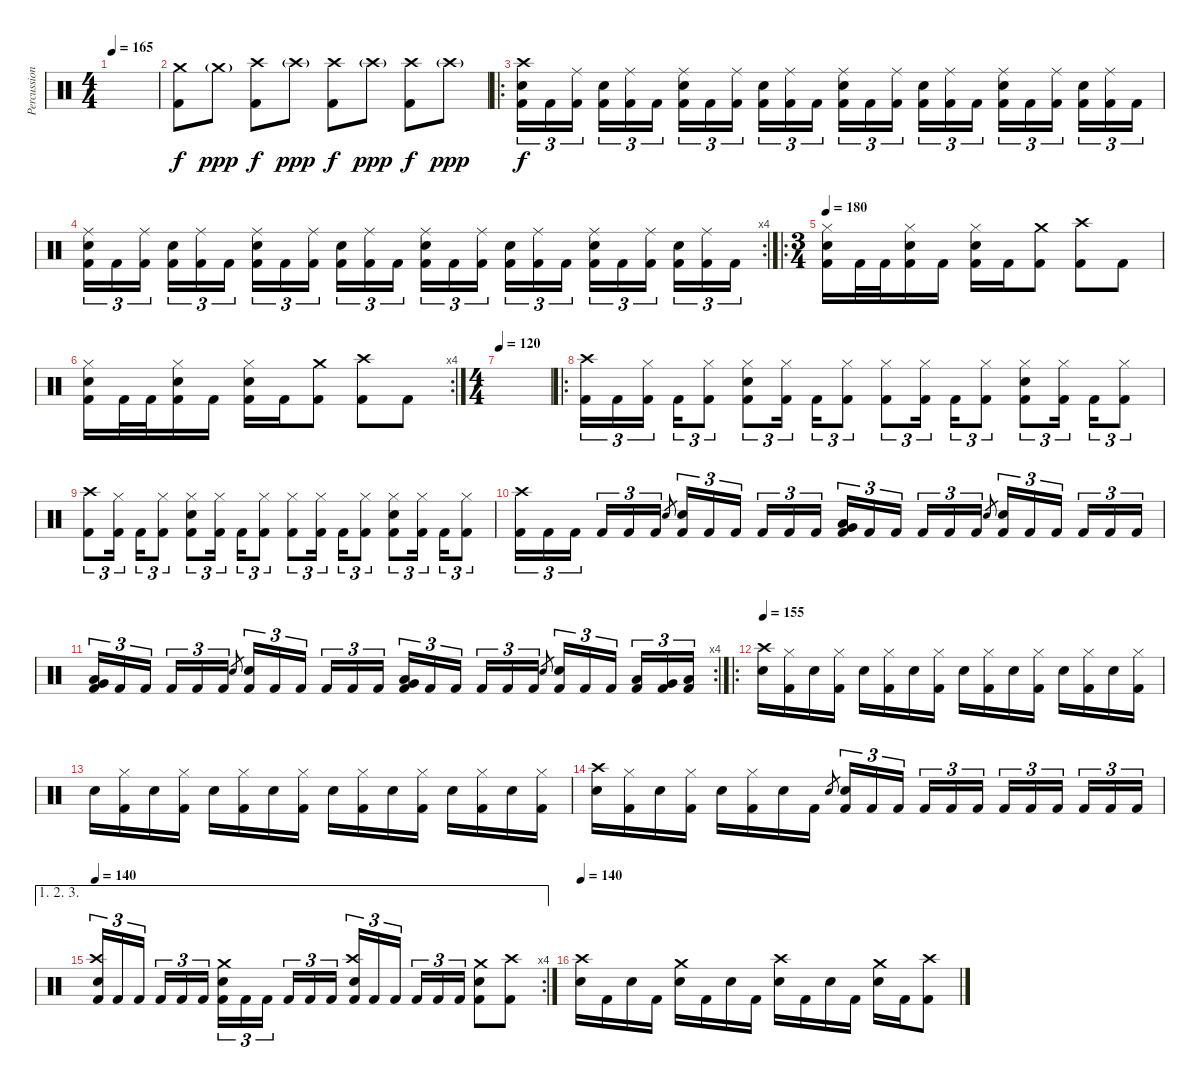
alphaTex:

\track ("Percussion" "Percussion") {instrument percussion}
\staff {score}
\articulation defaults
\ts (4 4)
\tempo 165
\clef neutral
\ks c
|
("Crash medium (hit)" "Kick (hit) 2").8 "Crash medium (hit)"{g}.8{dy ppp} ("Crash high (hit)" "Kick (hit) 2").8{dy f} "Crash high (hit)"{g}.8{dy ppp} ("Crash high (hit)" "Kick (hit) 2").8{dy f} "Crash high (hit)"{g}.8{dy ppp} ("Crash high (hit)" "Kick (hit) 2").8{dy f} "Crash high (hit)"{g}.8{dy ppp} |
\ro
("Crash high (hit)" "Snare (hit) 2" "Kick (hit) 2").16{tu (3 2) dy f} "Kick (hit) 2".16{tu (3 2)} ("Ride (middle)" "Kick (hit) 2").16{tu (3 2)} ("Snare (hit) 2" "Kick (hit) 2").16{tu (3 2)} ("Ride (middle)" "Kick (hit) 2").16{tu (3 2)} "Kick (hit) 2".16{tu (3 2)} ("Ride (middle)" "Snare (hit) 2" "Kick (hit) 2").16{tu (3 2)} "Kick (hit) 2".16{tu (3 2)} ("Ride (middle)" "Kick (hit) 2").16{tu (3 2)} ("Snare (hit) 2" "Kick (hit) 2").16{tu (3 2)} ("Ride (middle)" "Kick (hit) 2").16{tu (3 2)} "Kick (hit) 2".16{tu (3 2)} ("Ride (middle)" "Snare (hit) 2" "Kick (hit) 2").16{tu (3 2)} "Kick (hit) 2".16{tu (3 2)} ("Ride (middle)" "Kick (hit) 2").16{tu (3 2)} ("Snare (hit) 2" "Kick (hit) 2").16{tu (3 2)} ("Ride (middle)" "Kick (hit) 2").16{tu (3 2)} "Kick (hit) 2".16{tu (3 2)} ("Ride (middle)" "Snare (hit) 2" "Kick (hit) 2").16{tu (3 2)} "Kick (hit) 2".16{tu (3 2)} ("Ride (middle)" "Kick (hit) 2").16{tu (3 2)} ("Snare (hit) 2" "Kick (hit) 2").16{tu (3 2)} ("Ride (middle)" "Kick (hit) 2").16{tu (3 2)} "Kick (hit) 2".16{tu (3 2)} |
\rc 4
("Ride (middle)" "Snare (hit) 2" "Kick (hit) 2").16{tu (3 2)} "Kick (hit) 2".16{tu (3 2)} ("Ride (middle)" "Kick (hit) 2").16{tu (3 2)} ("Snare (hit) 2" "Kick (hit) 2").16{tu (3 2)} ("Ride (middle)" "Kick (hit) 2").16{tu (3 2)} "Kick (hit) 2".16{tu (3 2)} ("Ride (middle)" "Snare (hit) 2" "Kick (hit) 2").16{tu (3 2)} "Kick (hit) 2".16{tu (3 2)} ("Ride (middle)" "Kick (hit) 2").16{tu (3 2)} ("Snare (hit) 2" "Kick (hit) 2").16{tu (3 2)} ("Ride (middle)" "Kick (hit) 2").16{tu (3 2)} "Kick (hit) 2".16{tu (3 2)} ("Ride (middle)" "Snare (hit) 2" "Kick (hit) 2").16{tu (3 2)} "Kick (hit) 2".16{tu (3 2)} ("Ride (middle)" "Kick (hit) 2").16{tu (3 2)} ("Snare (hit) 2" "Kick (hit) 2").16{tu (3 2)} ("Ride (middle)" "Kick (hit) 2").16{tu (3 2)} "Kick (hit) 2".16{tu (3 2)} ("Ride (middle)" "Snare (hit) 2" "Kick (hit) 2").16{tu (3 2)} "Kick (hit) 2".16{tu (3 2)} ("Ride (middle)" "Kick (hit) 2").16{tu (3 2)} ("Snare (hit) 2" "Kick (hit) 2").16{tu (3 2)} ("Ride (middle)" "Kick (hit) 2").16{tu (3 2)} "Kick (hit) 2".16{tu (3 2)} |
\ro
\ts (3 4)
\tempo 180
("Hi-Hat (closed)" "Snare (hit) 2" "Kick (hit) 2").16 "Kick (hit) 2".32 "Kick (hit) 2".32 ("Hi-Hat (closed)" "Snare (hit) 2" "Kick (hit) 2").16 "Kick (hit) 2".16 ("Hi-Hat (closed)" "Snare (hit) 2" "Kick (hit) 2").16 "Kick (hit) 2".16 ("Crash medium (hit)" "Kick (hit) 2").8 ("Crash high (hit)" "Kick (hit) 2").8 "Kick (hit) 2".8 |
\rc 4
("Hi-Hat (closed)" "Snare (hit) 2" "Kick (hit) 2").16 "Kick (hit) 2".32 "Kick (hit) 2".32 ("Hi-Hat (closed)" "Snare (hit) 2" "Kick (hit) 2").16 "Kick (hit) 2".16 ("Hi-Hat (closed)" "Snare (hit) 2" "Kick (hit) 2").16 "Kick (hit) 2".16 ("Crash medium (hit)" "Kick (hit) 2").8 ("Crash high (hit)" "Kick (hit) 2").8 "Kick (hit) 2".8 |
\ts (4 4)
\tempo 120
|
\ro
("Crash high (hit)" "Kick (hit) 2").16{tu (3 2)} "Kick (hit) 2".16{tu (3 2)} ("Hi-Hat (closed)" "Kick (hit) 2").16{tu (3 2)} "Kick (hit) 2".16{tu (3 2)} ("Hi-Hat (closed)" "Kick (hit) 2").8{tu (3 2)} ("Hi-Hat (closed)" "Snare (hit) 2" "Kick (hit) 2").8{tu (3 2)} ("Hi-Hat (closed)" "Kick (hit) 2").16{tu (3 2)} "Kick (hit) 2".16{tu (3 2)} ("Hi-Hat (closed)" "Kick (hit) 2").8{tu (3 2)} ("Hi-Hat (closed)" "Kick (hit) 2").8{tu (3 2)} ("Hi-Hat (closed)" "Kick (hit) 2").16{tu (3 2)} "Kick (hit) 2".16{tu (3 2)} ("Hi-Hat (closed)" "Kick (hit) 2").8{tu (3 2)} ("Hi-Hat (closed)" "Snare (hit) 2" "Kick (hit) 2").8{tu (3 2)} ("Hi-Hat (closed)" "Kick (hit) 2").16{tu (3 2)} "Kick (hit) 2".16{tu (3 2)} ("Hi-Hat (closed)" "Kick (hit) 2").8{tu (3 2)} |
("Crash high (hit)" "Kick (hit) 2").8{tu (3 2)} ("Hi-Hat (closed)" "Kick (hit) 2").16{tu (3 2)} "Kick (hit) 2".16{tu (3 2)} ("Hi-Hat (closed)" "Kick (hit) 2").8{tu (3 2)} ("Hi-Hat (closed)" "Snare (hit) 2" "Kick (hit) 2").8{tu (3 2)} ("Hi-Hat (closed)" "Kick (hit) 2").16{tu (3 2)} "Kick (hit) 2".16{tu (3 2)} ("Hi-Hat (closed)" "Kick (hit) 2").8{tu (3 2)} ("Hi-Hat (closed)" "Kick (hit) 2").8{tu (3 2)} ("Hi-Hat (closed)" "Kick (hit) 2").16{tu (3 2)} "Kick (hit) 2".16{tu (3 2)} ("Hi-Hat (closed)" "Kick (hit) 2").8{tu (3 2)} ("Hi-Hat (closed)" "Snare (hit) 2" "Kick (hit) 2").8{tu (3 2)} ("Hi-Hat (closed)" "Kick (hit) 2").16{tu (3 2)} "Kick (hit) 2".16{tu (3 2)} ("Hi-Hat (closed)" "Kick (hit) 2").8{tu (3 2)} |
("Crash high (hit)" "Kick (hit) 2").16{tu (3 2)} "Kick (hit) 2".16{tu (3 2)} "Kick (hit) 2".16{tu (3 2)} "Kick (hit) 2".16{tu (3 2)} "Kick (hit) 2".16{tu (3 2)} "Kick (hit) 2".16{tu (3 2)} "Snare (hit) 2".8{gr} ("Snare (hit) 2" "Kick (hit) 2").16{tu (3 2)} "Kick (hit) 2".16{tu (3 2)} "Kick (hit) 2".16{tu (3 2)} "Kick (hit) 2".16{tu (3 2)} "Kick (hit) 2".16{tu (3 2)} "Kick (hit) 2".16{tu (3 2)} ("Low Floor Tom (hit)" "Very Low Tom (hit)" "Kick (hit) 2").16{tu (3 2)} "Kick (hit) 2".16{tu (3 2)} "Kick (hit) 2".16{tu (3 2)} "Kick (hit) 2".16{tu (3 2)} "Kick (hit) 2".16{tu (3 2)} "Kick (hit) 2".16{tu (3 2)} "Snare (hit) 2".8{gr} ("Snare (hit) 2" "Kick (hit) 2").16{tu (3 2)} "Kick (hit) 2".16{tu (3 2)} "Kick (hit) 2".16{tu (3 2)} "Kick (hit) 2".16{tu (3 2)} "Kick (hit) 2".16{tu (3 2)} "Kick (hit) 2".16{tu (3 2)} |
\rc 4
("Low Floor Tom (hit)" "Very Low Tom (hit)" "Kick (hit) 2").16{tu (3 2)} "Kick (hit) 2".16{tu (3 2)} "Kick (hit) 2".16{tu (3 2)} "Kick (hit) 2".16{tu (3 2)} "Kick (hit) 2".16{tu (3 2)} "Kick (hit) 2".16{tu (3 2)} "Snare (hit) 2".8{gr} ("Snare (hit) 2" "Kick (hit) 2").16{tu (3 2)} "Kick (hit) 2".16{tu (3 2)} "Kick (hit) 2".16{tu (3 2)} "Kick (hit) 2".16{tu (3 2)} "Kick (hit) 2".16{tu (3 2)} "Kick (hit) 2".16{tu (3 2)} ("Low Floor Tom (hit)" "Very Low Tom (hit)" "Kick (hit) 2").16{tu (3 2)} "Kick (hit) 2".16{tu (3 2)} "Kick (hit) 2".16{tu (3 2)} "Kick (hit) 2".16{tu (3 2)} "Kick (hit) 2".16{tu (3 2)} "Kick (hit) 2".16{tu (3 2)} "Snare (hit) 2".8{gr} ("Snare (hit) 2" "Kick (hit) 2").16{tu (3 2)} "Kick (hit) 2".16{tu (3 2)} "Kick (hit) 2".16{tu (3 2)} ("Low Tom (hit)" "Kick (hit) 2").16{tu (3 2)} ("Very Low Tom (hit)" "Kick (hit) 2").16{tu (3 2)} ("Low Floor Tom (hit)" "Kick (hit) 2").16{tu (3 2)} |
\ro
\tempo 155
("Crash high (hit)" "Snare (hit) 2").16 ("Hi-Hat (closed)" "Kick (hit) 2").16 "Snare (hit) 2".16 ("Hi-Hat (closed)" "Kick (hit) 2").16 "Snare (hit) 2".16 ("Hi-Hat (closed)" "Kick (hit) 2").16 "Snare (hit) 2".16 ("Hi-Hat (closed)" "Kick (hit) 2").16 "Snare (hit) 2".16 ("Hi-Hat (closed)" "Kick (hit) 2").16 "Snare (hit) 2".16 ("Hi-Hat (closed)" "Kick (hit) 2").16 "Snare (hit) 2".16 ("Hi-Hat (closed)" "Kick (hit) 2").16 "Snare (hit) 2".16 ("Hi-Hat (closed)" "Kick (hit) 2").16 |
"Snare (hit) 2".16 ("Hi-Hat (closed)" "Kick (hit) 2").16 "Snare (hit) 2".16 ("Hi-Hat (closed)" "Kick (hit) 2").16 "Snare (hit) 2".16 ("Hi-Hat (closed)" "Kick (hit) 2").16 "Snare (hit) 2".16 ("Hi-Hat (closed)" "Kick (hit) 2").16 "Snare (hit) 2".16 ("Hi-Hat (closed)" "Kick (hit) 2").16 "Snare (hit) 2".16 ("Hi-Hat (closed)" "Kick (hit) 2").16 "Snare (hit) 2".16 ("Hi-Hat (closed)" "Kick (hit) 2").16 "Snare (hit) 2".16 ("Hi-Hat (closed)" "Kick (hit) 2").16 |
("Crash high (hit)" "Snare (hit) 2").16 ("Hi-Hat (closed)" "Kick (hit) 2").16 "Snare (hit) 2".16 ("Hi-Hat (closed)" "Kick (hit) 2").16 "Snare (hit) 2".16 ("Hi-Hat (closed)" "Kick (hit) 2").16 "Snare (hit) 2".16 "Kick (hit) 2".16 "Snare (hit) 2".8{gr} ("Snare (hit) 2" "Kick (hit) 2").16{tu (3 2)} "Kick (hit) 2".16{tu (3 2)} "Kick (hit) 2".16{tu (3 2)} "Kick (hit) 2".16{tu (3 2)} "Kick (hit) 2".16{tu (3 2)} "Kick (hit) 2".16{tu (3 2)} "Kick (hit) 2".16{tu (3 2)} "Kick (hit) 2".16{tu (3 2)} "Kick (hit) 2".16{tu (3 2)} "Kick (hit) 2".16{tu (3 2)} "Kick (hit) 2".16{tu (3 2)} "Kick (hit) 2".16{tu (3 2)} |
\ae (1 2 3)
\rc 4
\tempo 140
("Crash high (hit)" "Snare (hit) 2" "Kick (hit) 2").16{tu (3 2)} "Kick (hit) 2".16{tu (3 2)} "Kick (hit) 2".16{tu (3 2)} "Kick (hit) 2".16{tu (3 2)} "Kick (hit) 2".16{tu (3 2)} "Kick (hit) 2".16{tu (3 2)} ("Crash medium (hit)" "Snare (hit) 2" "Kick (hit) 2").16{tu (3 2)} "Kick (hit) 2".16{tu (3 2)} "Kick (hit) 2".16{tu (3 2)} "Kick (hit) 2".16{tu (3 2)} "Kick (hit) 2".16{tu (3 2)} "Kick (hit) 2".16{tu (3 2)} ("Crash high (hit)" "Snare (hit) 2" "Kick (hit) 2").16{tu (3 2)} "Kick (hit) 2".16{tu (3 2)} "Kick (hit) 2".16{tu (3 2)} "Kick (hit) 2".16{tu (3 2)} "Kick (hit) 2".16{tu (3 2)} "Kick (hit) 2".16{tu (3 2)} ("Crash medium (hit)" "Snare (hit) 2" "Kick (hit) 2").8 ("Crash high (hit)" "Kick (hit) 2").8 |
\tempo 140
("Crash high (hit)" "Snare (hit) 2").16 "Kick (hit) 2".16 "Snare (hit) 2".16 "Kick (hit) 2".16 ("Crash medium (hit)" "Snare (hit) 2").16 "Kick (hit) 2".16 "Snare (hit) 2".16 "Kick (hit) 2".16 ("Crash high (hit)" "Snare (hit) 2").16 "Kick (hit) 2".16 "Snare (hit) 2".16 "Kick (hit) 2".16 ("Crash medium (hit)" "Snare (hit) 2").16 "Kick (hit) 2".16 ("Crash high (hit)" "Kick (hit) 2").8
